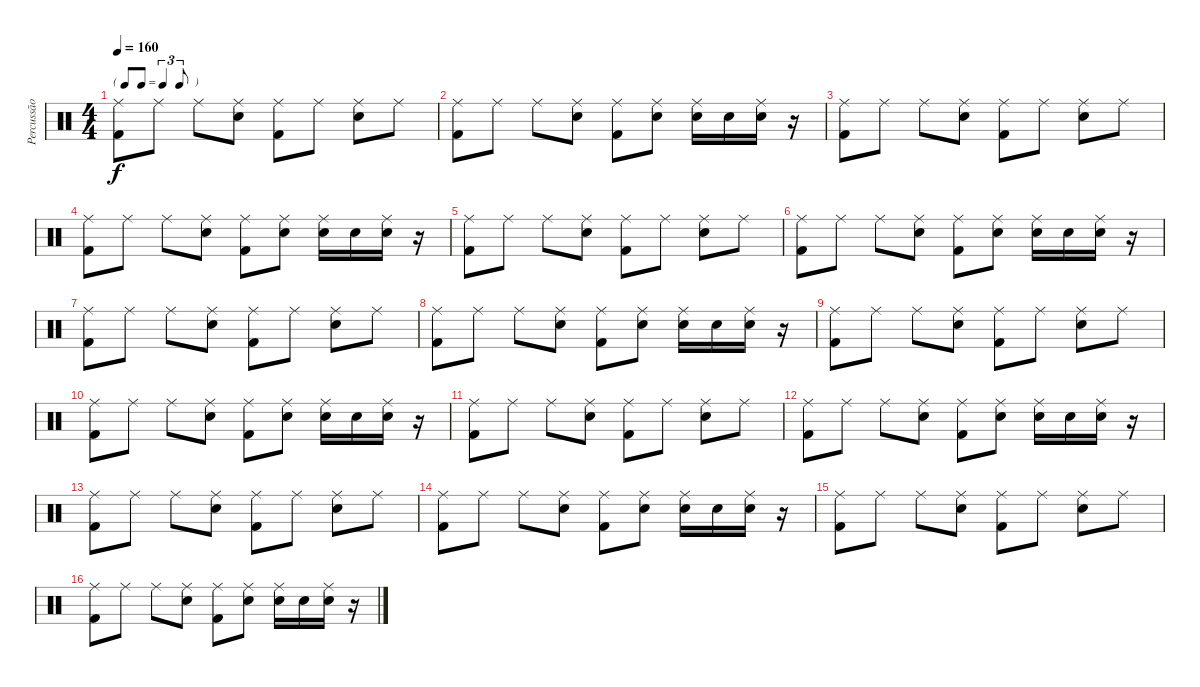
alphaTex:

\track ("Percussão" "Percussão") {instrument percussion}
\staff {score}
\articulation defaults
\ts (4 4)
\tf triplet8th
\tempo 160
\clef neutral
\ks c
("Ride (middle)" "Kick (hit) 2").8{dy f} "Ride (middle)".8 "Ride (middle)".8 ("Ride (middle)" "Snare (hit) 2").8 ("Ride (middle)" "Kick (hit) 2").8 "Ride (middle)".8 ("Ride (middle)" "Snare (hit) 2").8 "Ride (middle)".8 |
("Ride (middle)" "Kick (hit) 2").8 "Ride (middle)".8 "Ride (middle)".8 ("Ride (middle)" "Snare (hit) 2").8 ("Ride (middle)" "Kick (hit) 2").8 ("Ride (middle)" "Snare (hit) 2").8 ("Ride (middle)" "Snare (hit) 2").16 "Snare (hit) 2".16 ("Ride (middle)" "Snare (hit) 2").16 r.16 |
("Ride (middle)" "Kick (hit) 2").8 "Ride (middle)".8 "Ride (middle)".8 ("Ride (middle)" "Snare (hit) 2").8 ("Ride (middle)" "Kick (hit) 2").8 "Ride (middle)".8 ("Ride (middle)" "Snare (hit) 2").8 "Ride (middle)".8 |
("Ride (middle)" "Kick (hit) 2").8 "Ride (middle)".8 "Ride (middle)".8 ("Ride (middle)" "Snare (hit) 2").8 ("Ride (middle)" "Kick (hit) 2").8 ("Ride (middle)" "Snare (hit) 2").8 ("Ride (middle)" "Snare (hit) 2").16 "Snare (hit) 2".16 ("Ride (middle)" "Snare (hit) 2").16 r.16 |
("Ride (middle)" "Kick (hit) 2").8 "Ride (middle)".8 "Ride (middle)".8 ("Ride (middle)" "Snare (hit) 2").8 ("Ride (middle)" "Kick (hit) 2").8 "Ride (middle)".8 ("Ride (middle)" "Snare (hit) 2").8 "Ride (middle)".8 |
("Ride (middle)" "Kick (hit) 2").8 "Ride (middle)".8 "Ride (middle)".8 ("Ride (middle)" "Snare (hit) 2").8 ("Ride (middle)" "Kick (hit) 2").8 ("Ride (middle)" "Snare (hit) 2").8 ("Ride (middle)" "Snare (hit) 2").16 "Snare (hit) 2".16 ("Ride (middle)" "Snare (hit) 2").16 r.16 |
("Ride (middle)" "Kick (hit) 2").8 "Ride (middle)".8 "Ride (middle)".8 ("Ride (middle)" "Snare (hit) 2").8 ("Ride (middle)" "Kick (hit) 2").8 "Ride (middle)".8 ("Ride (middle)" "Snare (hit) 2").8 "Ride (middle)".8 |
("Ride (middle)" "Kick (hit) 2").8 "Ride (middle)".8 "Ride (middle)".8 ("Ride (middle)" "Snare (hit) 2").8 ("Ride (middle)" "Kick (hit) 2").8 ("Ride (middle)" "Snare (hit) 2").8 ("Ride (middle)" "Snare (hit) 2").16 "Snare (hit) 2".16 ("Ride (middle)" "Snare (hit) 2").16 r.16 |
("Ride (middle)" "Kick (hit) 2").8 "Ride (middle)".8 "Ride (middle)".8 ("Ride (middle)" "Snare (hit) 2").8 ("Ride (middle)" "Kick (hit) 2").8 "Ride (middle)".8 ("Ride (middle)" "Snare (hit) 2").8 "Ride (middle)".8 |
("Ride (middle)" "Kick (hit) 2").8 "Ride (middle)".8 "Ride (middle)".8 ("Ride (middle)" "Snare (hit) 2").8 ("Ride (middle)" "Kick (hit) 2").8 ("Ride (middle)" "Snare (hit) 2").8 ("Ride (middle)" "Snare (hit) 2").16 "Snare (hit) 2".16 ("Ride (middle)" "Snare (hit) 2").16 r.16 |
("Ride (middle)" "Kick (hit) 2").8 "Ride (middle)".8 "Ride (middle)".8 ("Ride (middle)" "Snare (hit) 2").8 ("Ride (middle)" "Kick (hit) 2").8 "Ride (middle)".8 ("Ride (middle)" "Snare (hit) 2").8 "Ride (middle)".8 |
("Ride (middle)" "Kick (hit) 2").8 "Ride (middle)".8 "Ride (middle)".8 ("Ride (middle)" "Snare (hit) 2").8 ("Ride (middle)" "Kick (hit) 2").8 ("Ride (middle)" "Snare (hit) 2").8 ("Ride (middle)" "Snare (hit) 2").16 "Snare (hit) 2".16 ("Ride (middle)" "Snare (hit) 2").16 r.16 |
("Ride (middle)" "Kick (hit) 2").8 "Ride (middle)".8 "Ride (middle)".8 ("Ride (middle)" "Snare (hit) 2").8 ("Ride (middle)" "Kick (hit) 2").8 "Ride (middle)".8 ("Ride (middle)" "Snare (hit) 2").8 "Ride (middle)".8 |
("Ride (middle)" "Kick (hit) 2").8 "Ride (middle)".8 "Ride (middle)".8 ("Ride (middle)" "Snare (hit) 2").8 ("Ride (middle)" "Kick (hit) 2").8 ("Ride (middle)" "Snare (hit) 2").8 ("Ride (middle)" "Snare (hit) 2").16 "Snare (hit) 2".16 ("Ride (middle)" "Snare (hit) 2").16 r.16 |
("Ride (middle)" "Kick (hit) 2").8 "Ride (middle)".8 "Ride (middle)".8 ("Ride (middle)" "Snare (hit) 2").8 ("Ride (middle)" "Kick (hit) 2").8 "Ride (middle)".8 ("Ride (middle)" "Snare (hit) 2").8 "Ride (middle)".8 |
("Ride (middle)" "Kick (hit) 2").8 "Ride (middle)".8 "Ride (middle)".8 ("Ride (middle)" "Snare (hit) 2").8 ("Ride (middle)" "Kick (hit) 2").8 ("Ride (middle)" "Snare (hit) 2").8 ("Ride (middle)" "Snare (hit) 2").16 "Snare (hit) 2".16 ("Ride (middle)" "Snare (hit) 2").16 r.16
